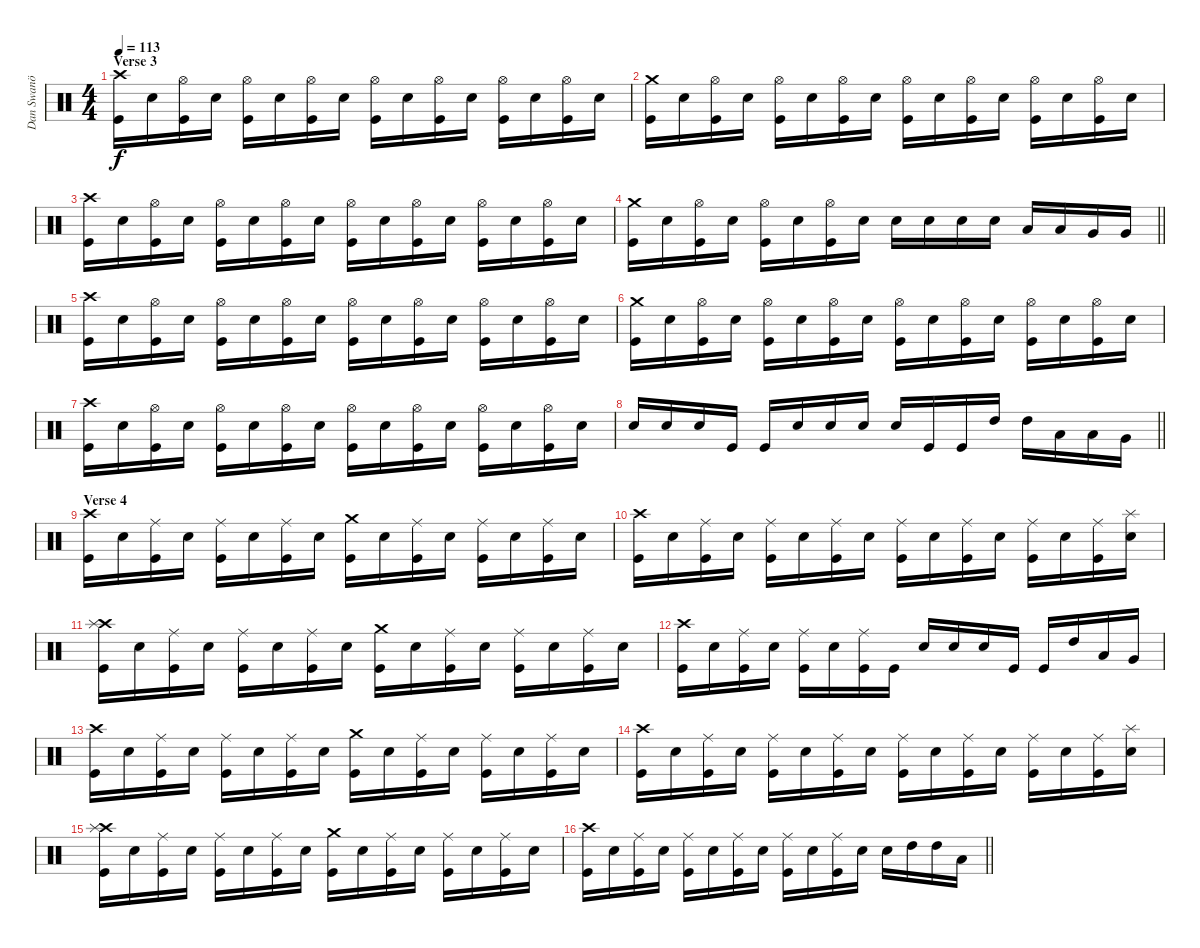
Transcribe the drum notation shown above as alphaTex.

\track ("Dan Swanö" "Dan Swanö") {instrument percussion}
\staff {score}
\articulation defaults
\ts (4 4)
\section ("" "Verse 3")
\tempo 113
\clef neutral
\ks c
("Crash high (hit)" "Kick (hit)").16{dy f} "Snare (hit) 2".16 ("Hi-Hat (open)" "Kick (hit)").16 "Snare (hit) 2".16 ("Hi-Hat (open)" "Kick (hit)").16 "Snare (hit) 2".16 ("Hi-Hat (open)" "Kick (hit)").16 "Snare (hit) 2".16 ("Hi-Hat (open)" "Kick (hit)").16 "Snare (hit) 2".16 ("Hi-Hat (open)" "Kick (hit)").16 "Snare (hit) 2".16 ("Hi-Hat (open)" "Kick (hit)").16 "Snare (hit) 2".16 ("Hi-Hat (open)" "Kick (hit)").16 "Snare (hit) 2".16 |
("Crash medium (hit)" "Kick (hit)").16 "Snare (hit) 2".16 ("Hi-Hat (open)" "Kick (hit)").16 "Snare (hit) 2".16 ("Hi-Hat (open)" "Kick (hit)").16 "Snare (hit) 2".16 ("Hi-Hat (open)" "Kick (hit)").16 "Snare (hit) 2".16 ("Hi-Hat (open)" "Kick (hit)").16 "Snare (hit) 2".16 ("Hi-Hat (open)" "Kick (hit)").16 "Snare (hit) 2".16 ("Hi-Hat (open)" "Kick (hit)").16 "Snare (hit) 2".16 ("Hi-Hat (open)" "Kick (hit)").16 "Snare (hit) 2".16 |
("Crash high (hit)" "Kick (hit)").16 "Snare (hit) 2".16 ("Hi-Hat (open)" "Kick (hit)").16 "Snare (hit) 2".16 ("Hi-Hat (open)" "Kick (hit)").16 "Snare (hit) 2".16 ("Hi-Hat (open)" "Kick (hit)").16 "Snare (hit) 2".16 ("Hi-Hat (open)" "Kick (hit)").16 "Snare (hit) 2".16 ("Hi-Hat (open)" "Kick (hit)").16 "Snare (hit) 2".16 ("Hi-Hat (open)" "Kick (hit)").16 "Snare (hit) 2".16 ("Hi-Hat (open)" "Kick (hit)").16 "Snare (hit) 2".16 |
\barLineRight lightlight
("Crash medium (hit)" "Kick (hit)").16 "Snare (hit) 2".16 ("Hi-Hat (open)" "Kick (hit)").16 "Snare (hit) 2".16 ("Hi-Hat (open)" "Kick (hit)").16 "Snare (hit) 2".16 ("Hi-Hat (open)" "Kick (hit)").16 "Snare (hit) 2".16 "Snare (hit) 2".16 "Snare (hit) 2".16 "Snare (hit) 2".16 "Snare (hit) 2".16 "Low Tom (hit)".16 "Low Tom (hit)".16 "Very Low Tom (hit)".16 "Very Low Tom (hit)".16 |
("Crash high (hit)" "Kick (hit)").16 "Snare (hit) 2".16 ("Hi-Hat (open)" "Kick (hit)").16 "Snare (hit) 2".16 ("Hi-Hat (open)" "Kick (hit)").16 "Snare (hit) 2".16 ("Hi-Hat (open)" "Kick (hit)").16 "Snare (hit) 2".16 ("Hi-Hat (open)" "Kick (hit)").16 "Snare (hit) 2".16 ("Hi-Hat (open)" "Kick (hit)").16 "Snare (hit) 2".16 ("Hi-Hat (open)" "Kick (hit)").16 "Snare (hit) 2".16 ("Hi-Hat (open)" "Kick (hit)").16 "Snare (hit) 2".16 |
("Crash medium (hit)" "Kick (hit)").16 "Snare (hit) 2".16 ("Hi-Hat (open)" "Kick (hit)").16 "Snare (hit) 2".16 ("Hi-Hat (open)" "Kick (hit)").16 "Snare (hit) 2".16 ("Hi-Hat (open)" "Kick (hit)").16 "Snare (hit) 2".16 ("Hi-Hat (open)" "Kick (hit)").16 "Snare (hit) 2".16 ("Hi-Hat (open)" "Kick (hit)").16 "Snare (hit) 2".16 ("Hi-Hat (open)" "Kick (hit)").16 "Snare (hit) 2".16 ("Hi-Hat (open)" "Kick (hit)").16 "Snare (hit) 2".16 |
("Crash high (hit)" "Kick (hit)").16 "Snare (hit) 2".16 ("Hi-Hat (open)" "Kick (hit)").16 "Snare (hit) 2".16 ("Hi-Hat (open)" "Kick (hit)").16 "Snare (hit) 2".16 ("Hi-Hat (open)" "Kick (hit)").16 "Snare (hit) 2".16 ("Hi-Hat (open)" "Kick (hit)").16 "Snare (hit) 2".16 ("Hi-Hat (open)" "Kick (hit)").16 "Snare (hit) 2".16 ("Hi-Hat (open)" "Kick (hit)").16 "Snare (hit) 2".16 ("Hi-Hat (open)" "Kick (hit)").16 "Snare (hit) 2".16 |
\barLineRight lightlight "Snare (hit) 2".16 "Snare (hit) 2".16 "Snare (hit) 2".16 "Kick (hit)".16 "Kick (hit)".16 "Snare (hit) 2".16 "Snare (hit) 2".16 "Snare (hit) 2".16 "Snare (hit) 2".16 "Kick (hit)".16 "Kick (hit)".16 "High Tom (hit)".16 "High Tom (hit)".16 "Low Tom (hit)".16 "Low Tom (hit)".16 "Very Low Tom (hit)".16
|
\section ("" "Verse 4")
("Crash high (hit)" "Kick (hit)").16 "Snare (hit) 2".16 ("Ride (middle)" "Kick (hit)").16 "Snare (hit) 2".16 ("Ride (middle)" "Kick (hit)").16 "Snare (hit) 2".16 ("Ride (middle)" "Kick (hit)").16 "Snare (hit) 2".16 ("Crash medium (hit)" "Kick (hit)").16 "Snare (hit) 2".16 ("Ride (middle)" "Kick (hit)").16 "Snare (hit) 2".16 ("Ride (middle)" "Kick (hit)").16 "Snare (hit) 2".16 ("Ride (middle)" "Kick (hit)").16 "Snare (hit) 2".16 |
("Crash high (hit)" "Kick (hit)").16 "Snare (hit) 2".16 ("Ride (middle)" "Kick (hit)").16 "Snare (hit) 2".16 ("Ride (middle)" "Kick (hit)").16 "Snare (hit) 2".16 ("Ride (middle)" "Kick (hit)").16 "Snare (hit) 2".16 ("Ride (middle)" "Kick (hit)").16 "Snare (hit) 2".16 ("Ride (middle)" "Kick (hit)").16 "Snare (hit) 2".16 ("Ride (middle)" "Kick (hit)").16 "Snare (hit) 2".16 ("Ride (middle)" "Kick (hit)").16 ("Splash (hit)" "Snare (hit) 2").16 |
("Crash high (hit)" "Splash (hit)" "Kick (hit)").16 "Snare (hit) 2".16 ("Ride (middle)" "Kick (hit)").16 "Snare (hit) 2".16 ("Ride (middle)" "Kick (hit)").16 "Snare (hit) 2".16 ("Ride (middle)" "Kick (hit)").16 "Snare (hit) 2".16 ("Crash medium (hit)" "Kick (hit)").16 "Snare (hit) 2".16 ("Ride (middle)" "Kick (hit)").16 "Snare (hit) 2".16 ("Ride (middle)" "Kick (hit)").16 "Snare (hit) 2".16 ("Ride (middle)" "Kick (hit)").16 "Snare (hit) 2".16 |
("Crash high (hit)" "Kick (hit)").16 "Snare (hit) 2".16 ("Ride (middle)" "Kick (hit)").16 "Snare (hit) 2".16 ("Ride (middle)" "Kick (hit)").16 "Snare (hit) 2".16 ("Ride (middle)" "Kick (hit)").16 "Kick (hit)".16 "Snare (hit) 2".16 "Snare (hit) 2".16 "Snare (hit) 2".16 "Kick (hit)".16 "Kick (hit)".16 "High Tom (hit)".16 "Low Tom (hit)".16 "Very Low Tom (hit)".16 |
("Crash high (hit)" "Kick (hit)").16 "Snare (hit) 2".16 ("Ride (middle)" "Kick (hit)").16 "Snare (hit) 2".16 ("Ride (middle)" "Kick (hit)").16 "Snare (hit) 2".16 ("Ride (middle)" "Kick (hit)").16 "Snare (hit) 2".16 ("Crash medium (hit)" "Kick (hit)").16 "Snare (hit) 2".16 ("Ride (middle)" "Kick (hit)").16 "Snare (hit) 2".16 ("Ride (middle)" "Kick (hit)").16 "Snare (hit) 2".16 ("Ride (middle)" "Kick (hit)").16 "Snare (hit) 2".16 |
("Crash high (hit)" "Kick (hit)").16 "Snare (hit) 2".16 ("Ride (middle)" "Kick (hit)").16 "Snare (hit) 2".16 ("Ride (middle)" "Kick (hit)").16 "Snare (hit) 2".16 ("Ride (middle)" "Kick (hit)").16 "Snare (hit) 2".16 ("Ride (middle)" "Kick (hit)").16 "Snare (hit) 2".16 ("Ride (middle)" "Kick (hit)").16 "Snare (hit) 2".16 ("Ride (middle)" "Kick (hit)").16 "Snare (hit) 2".16 ("Ride (middle)" "Kick (hit)").16 ("Splash (hit)" "Snare (hit) 2").16 |
("Crash high (hit)" "Splash (hit)" "Kick (hit)").16 "Snare (hit) 2".16 ("Ride (middle)" "Kick (hit)").16 "Snare (hit) 2".16 ("Ride (middle)" "Kick (hit)").16 "Snare (hit) 2".16 ("Ride (middle)" "Kick (hit)").16 "Snare (hit) 2".16 ("Crash medium (hit)" "Kick (hit)").16 "Snare (hit) 2".16 ("Ride (middle)" "Kick (hit)").16 "Snare (hit) 2".16 ("Ride (middle)" "Kick (hit)").16 "Snare (hit) 2".16 ("Ride (middle)" "Kick (hit)").16 "Snare (hit) 2".16 |
\barLineRight lightlight
("Crash high (hit)" "Kick (hit)").16 "Snare (hit) 2".16 ("Ride (middle)" "Kick (hit)").16 "Snare (hit) 2".16 ("Ride (middle)" "Kick (hit)").16 "Snare (hit) 2".16 ("Ride (middle)" "Kick (hit)").16 "Snare (hit) 2".16 ("Ride (middle)" "Kick (hit)").16 "Snare (hit) 2".16 ("Ride (middle)" "Kick (hit)").16 "Snare (hit) 2".16 "Snare (hit) 2".16 "High Tom (hit)".16 "High Tom (hit)".16 "Low Tom (hit)".16
